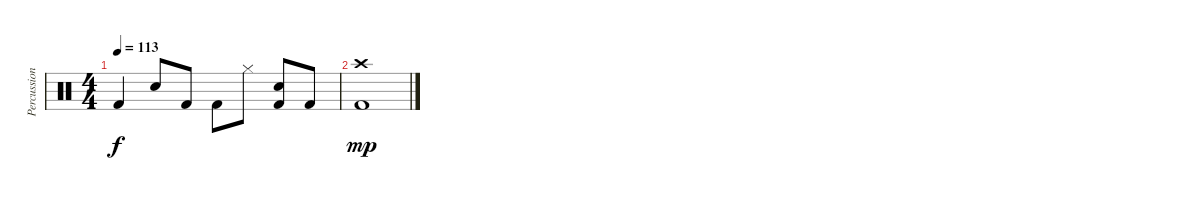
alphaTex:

\track ("Percussion" "Percussion") {instrument percussion}
\staff {score}
\articulation defaults
\ts (4 4)
\tempo 113
\clef neutral
\ks c "Kick (hit) 2".4{dy f} "Snare (hit) 2".8 "Kick (hit) 2".8 "Kick (hit) 2".8 "Hi-Hat (closed)".8
("Snare (hit) 2" "Kick (hit) 2").8 "Kick (hit) 2".8 |
("Crash high (hit)" "Kick (hit) 2").1{dy mp}
